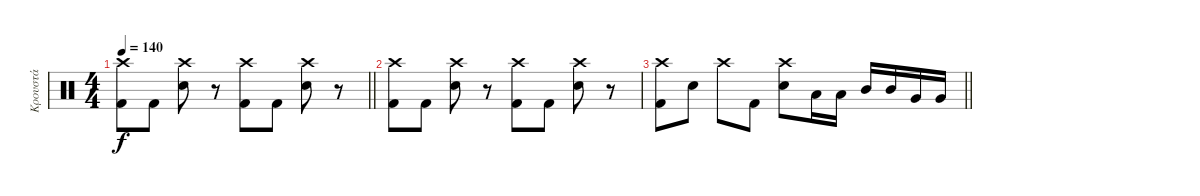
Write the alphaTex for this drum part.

\track ("Κρουστά" "Κρουστά") {instrument percussion}
\staff {score}
\articulation defaults
\ts (4 4)
\tempo 140
\clef neutral
\barLineRight lightlight
\ks c
("Crash high (hit)" "Kick (hit) 2").8{dy f} "Kick (hit) 2".8 ("Crash high (hit)" "Electric Snare (hit)").8 r.8 ("Crash high (hit)" "Kick (hit) 2").8 "Kick (hit) 2".8 ("Crash high (hit)" "Electric Snare (hit)").8 r.8 |
("Crash high (hit)" "Kick (hit) 2").8 "Kick (hit) 2".8 ("Crash high (hit)" "Electric Snare (hit)").8 r.8 ("Crash high (hit)" "Kick (hit) 2").8 "Kick (hit) 2".8 ("Crash high (hit)" "Electric Snare (hit)").8 r.8 |
\barLineRight lightlight
("Crash high (hit)" "Kick (hit) 2").8 "Electric Snare (hit)".8 "Crash high (hit)".8 "Kick (hit) 2".8 ("Crash high (hit)" "Electric Snare (hit)").8 "Low Tom (hit)".16 "Low Tom (hit)".16 "Mid Tom (hit)".16 "Mid Tom (hit)".16 "Very Low Tom (hit)".16 "Very Low Tom (hit)".16
